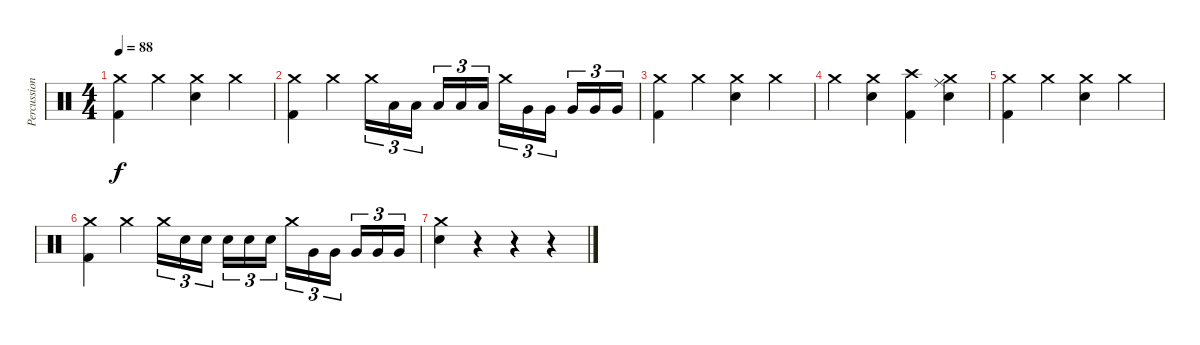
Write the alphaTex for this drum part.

\track ("Percussion" "Percussion") {instrument percussion}
\staff {score}
\articulation defaults
\ts (4 4)
\tempo 88
\clef neutral
\ks c
("Crash medium (hit)" "Kick (hit) 2").4{dy f} "Crash medium (hit)".4 ("Crash medium (hit)" "Electric Snare (hit)").4 "Crash medium (hit)".4 |
("Kick (hit) 2" "Crash medium (hit)").4 "Crash medium (hit)".4 "Crash medium (hit)".16{tu (3 2)} "Low Tom (hit)".16{tu (3 2)} "Low Tom (hit)".16{tu (3 2)} "Low Tom (hit)".16{tu (3 2)} "Low Tom (hit)".16{tu (3 2)} "Low Tom (hit)".16{tu (3 2)} "Crash medium (hit)".16{tu (3 2)} "Very Low Tom (hit)".16{tu (3 2)} "Very Low Tom (hit)".16{tu (3 2)} "Very Low Tom (hit)".16{tu (3 2)} "Very Low Tom (hit)".16{tu (3 2)} "Very Low Tom (hit)".16{tu (3 2)} |
("Crash medium (hit)" "Kick (hit) 2").4 "Crash medium (hit)".4 ("Crash medium (hit)" "Electric Snare (hit)").4 "Crash medium (hit)".4 |
"Crash medium (hit)".4 ("Crash medium (hit)" "Electric Snare (hit)").4 ("Crash high (hit)" "Kick (hit) 2").4 ("Crash medium (hit)" "Electric Snare (hit)" "Ride (middle)").4 |
("Crash medium (hit)" "Kick (hit) 2").4 "Crash medium (hit)".4 ("Crash medium (hit)" "Electric Snare (hit)").4 "Crash medium (hit)".4 |
("Crash medium (hit)" "Kick (hit) 2").4 "Crash medium (hit)".4 "Crash medium (hit)".16{tu (3 2)} "Snare (hit) 2".16{tu (3 2)} "Snare (hit) 2".16{tu (3 2)} "Snare (hit) 2".16{tu (3 2)} "Snare (hit) 2".16{tu (3 2)} "Snare (hit) 2".16{tu (3 2)} "Crash medium (hit)".16{tu (3 2)} "Very Low Tom (hit)".16{tu (3 2)} "Very Low Tom (hit)".16{tu (3 2)} "Very Low Tom (hit)".16{tu (3 2)} "Very Low Tom (hit)".16{tu (3 2)} "Very Low Tom (hit)".16{tu (3 2)} |
("Crash medium (hit)" "Electric Snare (hit)").4 r.4 r.4 r.4
